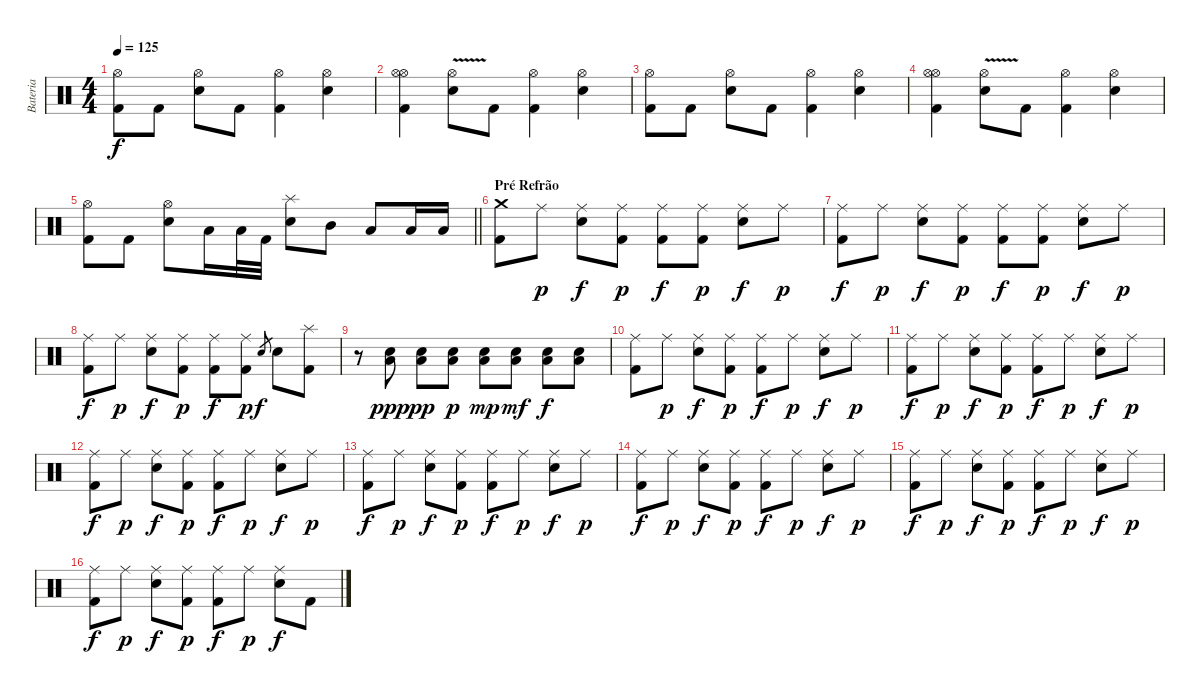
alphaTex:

\track ("Bateria" "Bateria") {instrument percussion}
\staff {score}
\articulation defaults
\ts (4 4)
\tempo 125
\clef neutral
\ks c
("Hi-Hat (open)" "Kick (hit) 2").8{dy f} "Kick (hit) 2".8 ("Hi-Hat (open)" "Electric Snare (hit)").8 "Kick (hit) 2".8 ("Hi-Hat (open)" "Kick (hit) 2").4 ("Electric Snare (hit)" "Hi-Hat (open)").4 |
("Hi-Hat (open)" "Hi-Hat (open)" "Kick (hit) 2").4 ("Hi-Hat (open)"{v} "Electric Snare (hit)").8 "Kick (hit) 2".8 ("Hi-Hat (open)" "Kick (hit) 2").4 ("Electric Snare (hit)" "Hi-Hat (open)").4 |
("Hi-Hat (open)" "Kick (hit) 2").8 "Kick (hit) 2".8 ("Hi-Hat (open)" "Electric Snare (hit)").8 "Kick (hit) 2".8 ("Hi-Hat (open)" "Kick (hit) 2").4 ("Electric Snare (hit)" "Hi-Hat (open)").4 |
("Hi-Hat (open)" "Hi-Hat (open)" "Kick (hit) 2").4 ("Hi-Hat (open)"{v} "Electric Snare (hit)").8 "Kick (hit) 2".8 ("Hi-Hat (open)" "Kick (hit) 2").4 ("Electric Snare (hit)" "Hi-Hat (open)").4 |
\barLineRight lightlight
("Hi-Hat (open)" "Kick (hit) 2").8 "Kick (hit) 2".8 ("Hi-Hat (open)" "Electric Snare (hit)").8 "Low Tom (hit)".16 "Low Tom (hit)".32 "Kick (hit) 2".32 ("Splash (hit)" "Electric Snare (hit)").8 "Mid Tom (hit)".8 "Low Tom (hit)".8 "Low Floor Tom (hit)".16 "Low Floor Tom (hit)".16 |
\section ("" "Pré Refrão")
("Crash medium (hit)" "Kick (hit) 2").8 "Ride (middle)".8{dy p} ("Ride (middle)" "Electric Snare (hit)").8{dy f} ("Ride (middle)" "Kick (hit) 2").8{dy p} ("Ride (middle)" "Kick (hit) 2").8{dy f} ("Ride (middle)" "Kick (hit) 2").8{dy p} ("Ride (middle)" "Electric Snare (hit)").8{dy f} "Ride (middle)".8{dy p} |
("Ride (middle)" "Kick (hit) 2").8{dy f} "Ride (middle)".8{dy p} ("Ride (middle)" "Electric Snare (hit)").8{dy f} ("Ride (middle)" "Kick (hit) 2").8{dy p} ("Ride (middle)" "Kick (hit) 2").8{dy f} ("Ride (middle)" "Kick (hit) 2").8{dy p} ("Ride (middle)" "Electric Snare (hit)").8{dy f} "Ride (middle)".8{dy p} |
("Ride (middle)" "Kick (hit) 2").8{dy f} "Ride (middle)".8{dy p} ("Ride (middle)" "Electric Snare (hit)").8{dy f} ("Ride (middle)" "Kick (hit) 2").8{dy p} ("Ride (middle)" "Kick (hit) 2").8{dy f} ("Ride (middle)" "Kick (hit) 2").8{dy p} "Electric Snare (hit)".8{gr dy f} "Electric Snare (hit)".8 ("Splash (hit)" "Kick (hit) 2").8 |
r.8 ("Snare (hit)" "Low Floor Tom (hit)").8{dy ppp} ("Electric Snare (hit)" "Low Floor Tom (hit)").8{dy pp} ("Electric Snare (hit)" "Low Floor Tom (hit)").8{dy p} ("Electric Snare (hit)" "Low Floor Tom (hit)").8{dy mp} ("Electric Snare (hit)" "Low Floor Tom (hit)").8{dy mf} ("Electric Snare (hit)" "Low Floor Tom (hit)").8{dy f} ("Electric Snare (hit)" "Low Floor Tom (hit)").8 |
("Ride (middle)" "Kick (hit) 2").8 "Ride (middle)".8{dy p} ("Ride (middle)" "Electric Snare (hit)").8{dy f} ("Ride (middle)" "Kick (hit) 2").8{dy p} ("Ride (middle)" "Kick (hit) 2").8{dy f} "Ride (middle)".8{dy p} ("Ride (middle)" "Electric Snare (hit)").8{dy f} "Ride (middle)".8{dy p} |
("Ride (middle)" "Kick (hit) 2").8{dy f} "Ride (middle)".8{dy p} ("Ride (middle)" "Electric Snare (hit)").8{dy f} ("Ride (middle)" "Kick (hit) 2").8{dy p} ("Ride (middle)" "Kick (hit) 2").8{dy f} "Ride (middle)".8{dy p} ("Ride (middle)" "Electric Snare (hit)").8{dy f} "Ride (middle)".8{dy p} |
("Ride (middle)" "Kick (hit) 2").8{dy f} "Ride (middle)".8{dy p} ("Ride (middle)" "Electric Snare (hit)").8{dy f} ("Ride (middle)" "Kick (hit) 2").8{dy p} ("Ride (middle)" "Kick (hit) 2").8{dy f} "Ride (middle)".8{dy p} ("Ride (middle)" "Electric Snare (hit)").8{dy f} "Ride (middle)".8{dy p} |
("Ride (middle)" "Kick (hit) 2").8{dy f} "Ride (middle)".8{dy p} ("Ride (middle)" "Electric Snare (hit)").8{dy f} ("Ride (middle)" "Kick (hit) 2").8{dy p} ("Ride (middle)" "Kick (hit) 2").8{dy f} "Ride (middle)".8{dy p} ("Ride (middle)" "Electric Snare (hit)").8{dy f} "Ride (middle)".8{dy p} |
("Ride (middle)" "Kick (hit) 2").8{dy f} "Ride (middle)".8{dy p} ("Ride (middle)" "Electric Snare (hit)").8{dy f} ("Ride (middle)" "Kick (hit) 2").8{dy p} ("Ride (middle)" "Kick (hit) 2").8{dy f} "Ride (middle)".8{dy p} ("Ride (middle)" "Electric Snare (hit)").8{dy f} "Ride (middle)".8{dy p} |
("Ride (middle)" "Kick (hit) 2").8{dy f} "Ride (middle)".8{dy p} ("Ride (middle)" "Electric Snare (hit)").8{dy f} ("Ride (middle)" "Kick (hit) 2").8{dy p} ("Ride (middle)" "Kick (hit) 2").8{dy f} "Ride (middle)".8{dy p} ("Ride (middle)" "Electric Snare (hit)").8{dy f} "Ride (middle)".8{dy p} |
("Ride (middle)" "Kick (hit) 2").8{dy f} "Ride (middle)".8{dy p} ("Ride (middle)" "Electric Snare (hit)").8{dy f} ("Ride (middle)" "Kick (hit) 2").8{dy p} ("Ride (middle)" "Kick (hit) 2").8{dy f} "Ride (middle)".8{dy p} ("Ride (middle)" "Electric Snare (hit)").8{dy f} "Kick (hit) 2".8
